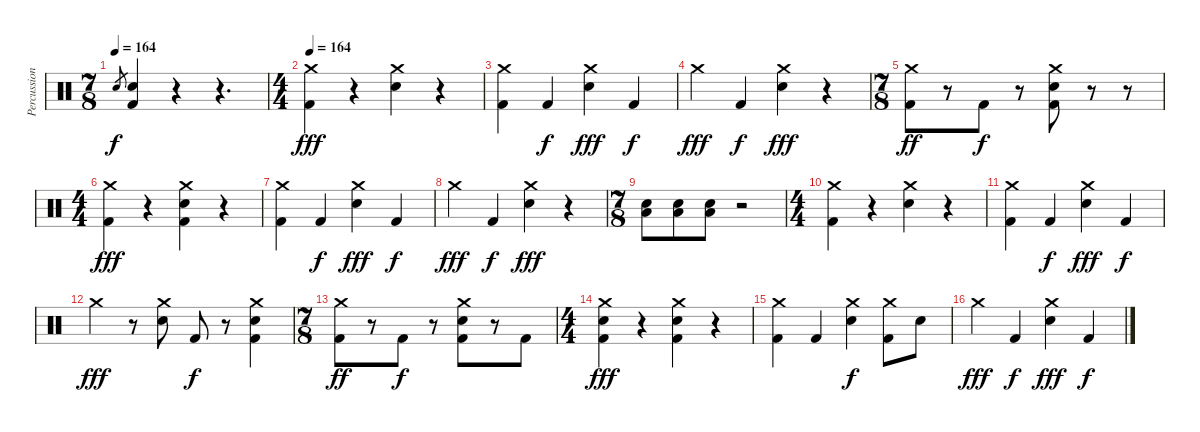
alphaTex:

\track ("Percussion" "Percussion") {instrument percussion}
\staff {score}
\articulation defaults
\ts (7 8)
\tempo 164
\tempo 151
\tempo 164
\clef neutral
\ks c "Electric Snare (hit)".8{gr dy f}
("Electric Snare (hit)" "Kick (hit) 2").4 r.4 r.4{d} |
\ts (4 4)
\tempo 164
("Crash medium (hit)" "Kick (hit) 2").4{dy fff} r.4 ("Crash medium (hit)" "Electric Snare (hit)").4 r.4 |
("Crash medium (hit)" "Kick (hit) 2").4 "Kick (hit) 2".4{dy f} ("Crash medium (hit)" "Electric Snare (hit)").4{dy fff} "Kick (hit) 2".4{dy f} |
"Crash medium (hit)".4{dy fff} "Kick (hit) 2".4{dy f} ("Crash medium (hit)" "Electric Snare (hit)").4{dy fff} r.4 |
\ts (7 8)
("Kick (hit) 2" "Crash medium (hit)").8{dy ff} r.8 "Kick (hit) 2".8{dy f} r.8 ("Crash medium (hit)" "Electric Snare (hit)" "Kick (hit) 2").8 r.8 r.8 |
\ts (4 4)
("Crash medium (hit)" "Kick (hit) 2").4{dy fff} r.4 ("Crash medium (hit)" "Electric Snare (hit)" "Kick (hit) 2").4 r.4 |
("Crash medium (hit)" "Kick (hit) 2").4 "Kick (hit) 2".4{dy f} ("Crash medium (hit)" "Electric Snare (hit)").4{dy fff} "Kick (hit) 2".4{dy f} |
"Crash medium (hit)".4{dy fff} "Kick (hit) 2".4{dy f} ("Crash medium (hit)" "Electric Snare (hit)").4{dy fff} r.4 |
\ts (7 8)
("Low Floor Tom (hit)" "Electric Snare (hit)").8 ("Low Floor Tom (hit)" "Electric Snare (hit)").8 ("Low Floor Tom (hit)" "Electric Snare (hit)").8 r.2 |
\ts (4 4)
("Crash medium (hit)" "Kick (hit) 2").4 r.4 ("Crash medium (hit)" "Electric Snare (hit)").4 r.4 |
("Crash medium (hit)" "Kick (hit) 2").4 "Kick (hit) 2".4{dy f} ("Crash medium (hit)" "Electric Snare (hit)").4{dy fff} "Kick (hit) 2".4{dy f} |
"Crash medium (hit)".4{dy fff} r.8 ("Crash medium (hit)" "Electric Snare (hit)").8 "Kick (hit) 2".8{dy f} r.8 ("Crash medium (hit)" "Electric Snare (hit)" "Kick (hit) 2").4 |
\ts (7 8)
("Kick (hit) 2" "Crash medium (hit)").8{dy ff} r.8 "Kick (hit) 2".8{dy f} r.8 ("Crash medium (hit)" "Electric Snare (hit)" "Kick (hit) 2").8 r.8 "Kick (hit) 2".8 |
\ts (4 4)
("Crash medium (hit)" "Electric Snare (hit)" "Kick (hit) 2").4{dy fff} r.4 ("Crash medium (hit)" "Electric Snare (hit)" "Kick (hit) 2").4 r.4 |
("Crash medium (hit)" "Kick (hit) 2").4 "Kick (hit) 2".4 ("Electric Snare (hit)" "Crash medium (hit)").4{dy f} ("Crash medium (hit)" "Kick (hit) 2").8 "Electric Snare (hit)".8 |
"Crash medium (hit)".4{dy fff} "Kick (hit) 2".4{dy f} ("Crash medium (hit)" "Electric Snare (hit)").4{dy fff} "Kick (hit) 2".4{dy f}
